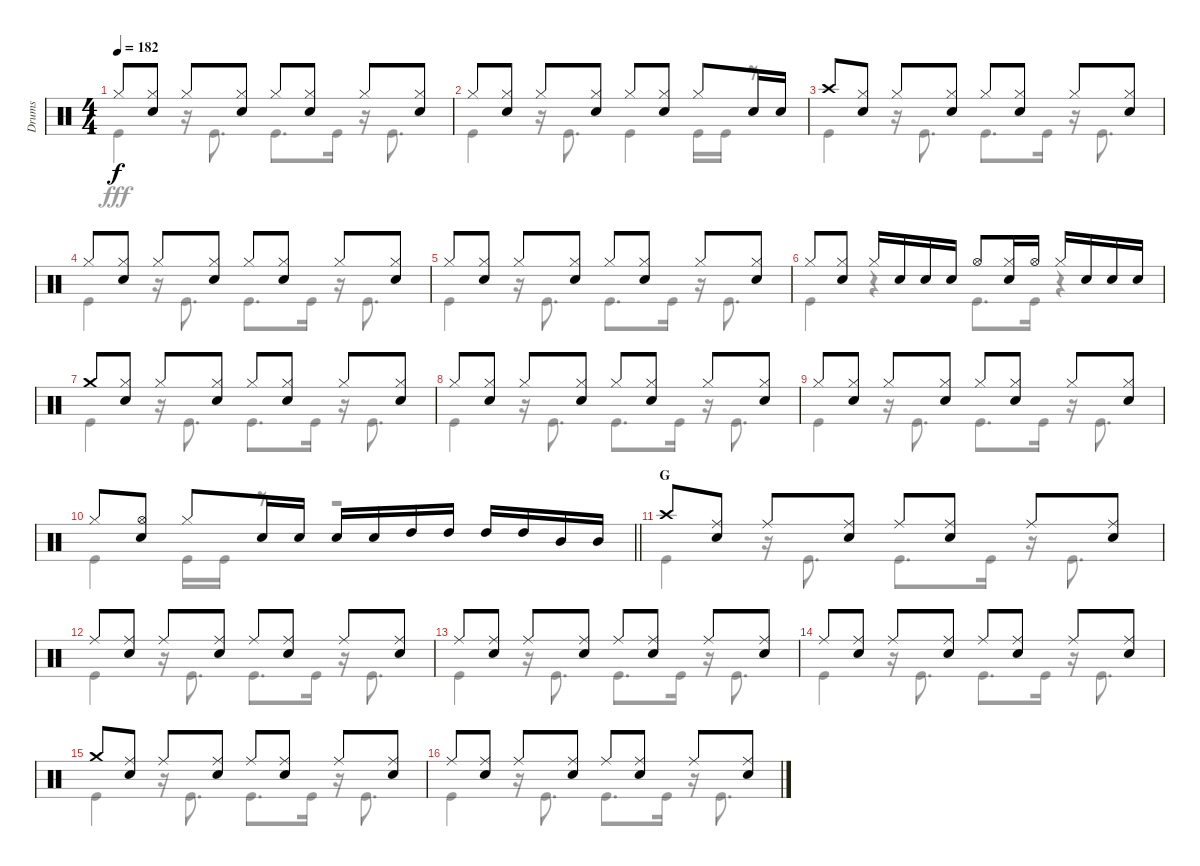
\track ("Drums" "Drums") {instrument percussion}
\staff {score}
\articulation defaults
\voice
\ts (4 4)
\tempo 182
\clef neutral
\ks c "Hi-Hat (closed)".8{dy f}
("Hi-Hat (closed)" "Snare (hit) 2").8 "Hi-Hat (closed)".8 ("Hi-Hat (closed)" "Snare (hit) 2").8 "Hi-Hat (closed)".8 ("Hi-Hat (closed)" "Snare (hit) 2").8 "Hi-Hat (closed)".8 ("Hi-Hat (closed)" "Snare (hit) 2").8 |
"Hi-Hat (closed)".8 ("Hi-Hat (closed)" "Snare (hit) 2").8 "Hi-Hat (closed)".8 ("Hi-Hat (closed)" "Snare (hit) 2").8 "Hi-Hat (closed)".8 ("Hi-Hat (closed)" "Snare (hit) 2").8 "Hi-Hat (closed)".8 "Snare (hit) 2".16 "Snare (hit) 2".16 |
"Crash high (hit)".8 ("Hi-Hat (closed)" "Snare (hit) 2").8 "Hi-Hat (closed)".8 ("Hi-Hat (closed)" "Snare (hit) 2").8 "Hi-Hat (closed)".8 ("Hi-Hat (closed)" "Snare (hit) 2").8 "Hi-Hat (closed)".8 ("Hi-Hat (closed)" "Snare (hit) 2").8 |
"Hi-Hat (closed)".8 ("Hi-Hat (closed)" "Snare (hit) 2").8 "Hi-Hat (closed)".8 ("Hi-Hat (closed)" "Snare (hit) 2").8 "Hi-Hat (closed)".8 ("Hi-Hat (closed)" "Snare (hit) 2").8 "Hi-Hat (closed)".8 ("Hi-Hat (closed)" "Snare (hit) 2").8 |
"Hi-Hat (closed)".8 ("Hi-Hat (closed)" "Snare (hit) 2").8 "Hi-Hat (closed)".8 ("Hi-Hat (closed)" "Snare (hit) 2").8 "Hi-Hat (closed)".8 ("Hi-Hat (closed)" "Snare (hit) 2").8 "Hi-Hat (closed)".8 ("Hi-Hat (closed)" "Snare (hit) 2").8 |
"Hi-Hat (closed)".8 ("Hi-Hat (closed)" "Snare (hit) 2").8 "Hi-Hat (closed)".16 "Snare (hit) 2".16 "Snare (hit) 2".16 "Snare (hit) 2".16 "Hi-Hat (open)".8 ("Hi-Hat (closed)" "Snare (hit) 2").16 "Hi-Hat (open)".16 "Hi-Hat (closed)".16 "Snare (hit) 2".16 "Snare (hit) 2".16 "Snare (hit) 2".16 |
"Crash medium (hit)".8 ("Hi-Hat (closed)" "Snare (hit) 2").8 "Hi-Hat (closed)".8 ("Hi-Hat (closed)" "Snare (hit) 2").8 "Hi-Hat (closed)".8 ("Hi-Hat (closed)" "Snare (hit) 2").8 "Hi-Hat (closed)".8 ("Hi-Hat (closed)" "Snare (hit) 2").8 |
"Hi-Hat (closed)".8 ("Hi-Hat (closed)" "Snare (hit) 2").8 "Hi-Hat (closed)".8 ("Hi-Hat (closed)" "Snare (hit) 2").8 "Hi-Hat (closed)".8 ("Hi-Hat (closed)" "Snare (hit) 2").8 "Hi-Hat (closed)".8 ("Hi-Hat (closed)" "Snare (hit) 2").8 |
"Hi-Hat (closed)".8 ("Hi-Hat (closed)" "Snare (hit) 2").8 "Hi-Hat (closed)".8 ("Hi-Hat (closed)" "Snare (hit) 2").8 "Hi-Hat (closed)".8 ("Hi-Hat (closed)" "Snare (hit) 2").8 "Hi-Hat (closed)".8 ("Hi-Hat (closed)" "Snare (hit) 2").8 |
\barLineRight lightlight "Hi-Hat (closed)".8
("Hi-Hat (open)" "Snare (hit) 2").8 "Hi-Hat (closed)".8 "Snare (hit) 2".16 "Snare (hit) 2".16 "Snare (hit) 2".16 "Snare (hit) 2".16 "High Tom (hit)".16 "High Tom (hit)".16 "High Tom (hit)".16 "High Tom (hit)".16 "Mid Tom (hit)".16 "Mid Tom (hit)".16 |
\section ("" "G")
"Crash high (hit)".8 ("Ride (middle)" "Snare (hit) 2").8 "Ride (middle)".8 ("Ride (middle)" "Snare (hit) 2").8 "Ride (middle)".8 ("Ride (middle)" "Snare (hit) 2").8 "Ride (middle)".8 ("Ride (middle)" "Snare (hit) 2").8 |
"Ride (middle)".8 ("Ride (middle)" "Snare (hit) 2").8 "Ride (middle)".8 ("Ride (middle)" "Snare (hit) 2").8 "Ride (middle)".8 ("Ride (middle)" "Snare (hit) 2").8 "Ride (middle)".8 ("Ride (middle)" "Snare (hit) 2").8 |
"Ride (middle)".8 ("Ride (middle)" "Snare (hit) 2").8 "Ride (middle)".8 ("Ride (middle)" "Snare (hit) 2").8 "Ride (middle)".8 ("Ride (middle)" "Snare (hit) 2").8 "Ride (middle)".8 ("Ride (middle)" "Snare (hit) 2").8 |
"Ride (middle)".8 ("Ride (middle)" "Snare (hit) 2").8 "Ride (middle)".8 ("Ride (middle)" "Snare (hit) 2").8 "Ride (middle)".8 ("Ride (middle)" "Snare (hit) 2").8 "Ride (middle)".8 ("Ride (middle)" "Snare (hit) 2").8 |
"Crash medium (hit)".8 ("Ride (middle)" "Snare (hit) 2").8 "Ride (middle)".8 ("Ride (middle)" "Snare (hit) 2").8 "Ride (middle)".8 ("Ride (middle)" "Snare (hit) 2").8 "Ride (middle)".8 ("Ride (middle)" "Snare (hit) 2").8 |
"Ride (middle)".8 ("Ride (middle)" "Snare (hit) 2").8 "Ride (middle)".8 ("Ride (middle)" "Snare (hit) 2").8 "Ride (middle)".8 ("Ride (middle)" "Snare (hit) 2").8 "Ride (middle)".8 ("Ride (middle)" "Snare (hit) 2").8
\voice
\clef neutral
\ottava regular
\simile none
\ks c "Kick (hit)".4{dy fff}
r.16 "Kick (hit)".8{d} "Kick (hit)".8{d} "Kick (hit)".16 r.16 "Kick (hit)".8{d} |
"Kick (hit)".4 r.16 "Kick (hit)".8{d} "Kick (hit)".4 "Kick (hit)".16 "Kick (hit)".16 r.8 |
"Kick (hit)".4 r.16 "Kick (hit)".8{d} "Kick (hit)".8{d} "Kick (hit)".16 r.16 "Kick (hit)".8{d} |
"Kick (hit)".4 r.16 "Kick (hit)".8{d} "Kick (hit)".8{d} "Kick (hit)".16 r.16 "Kick (hit)".8{d} |
"Kick (hit)".4 r.16 "Kick (hit)".8{d} "Kick (hit)".8{d} "Kick (hit)".16 r.16 "Kick (hit)".8{d} |
"Kick (hit)".4 r.4 "Kick (hit)".8{d} "Kick (hit)".16 r.4 |
"Kick (hit)".4 r.16 "Kick (hit)".8{d} "Kick (hit)".8{d} "Kick (hit)".16 r.16 "Kick (hit)".8{d} |
"Kick (hit)".4 r.16 "Kick (hit)".8{d} "Kick (hit)".8{d} "Kick (hit)".16 r.16 "Kick (hit)".8{d} |
"Kick (hit)".4 r.16 "Kick (hit)".8{d} "Kick (hit)".8{d} "Kick (hit)".16 r.16 "Kick (hit)".8{d} |
\barLineRight lightlight "Kick (hit)".4 "Kick (hit)".16 "Kick (hit)".16
r.8 r.2 |
"Kick (hit)".4 r.16 "Kick (hit)".8{d} "Kick (hit)".8{d} "Kick (hit)".16 r.16 "Kick (hit)".8{d} |
"Kick (hit)".4 r.16 "Kick (hit)".8{d} "Kick (hit)".8{d} "Kick (hit)".16 r.16 "Kick (hit)".8{d} |
"Kick (hit)".4 r.16 "Kick (hit)".8{d} "Kick (hit)".8{d} "Kick (hit)".16 r.16 "Kick (hit)".8{d} |
"Kick (hit)".4 r.16 "Kick (hit)".8{d} "Kick (hit)".8{d} "Kick (hit)".16 r.16 "Kick (hit)".8{d} |
"Kick (hit)".4 r.16 "Kick (hit)".8{d} "Kick (hit)".8{d} "Kick (hit)".16 r.16 "Kick (hit)".8{d} |
"Kick (hit)".4 r.16 "Kick (hit)".8{d} "Kick (hit)".8{d} "Kick (hit)".16 r.16 "Kick (hit)".8{d}
